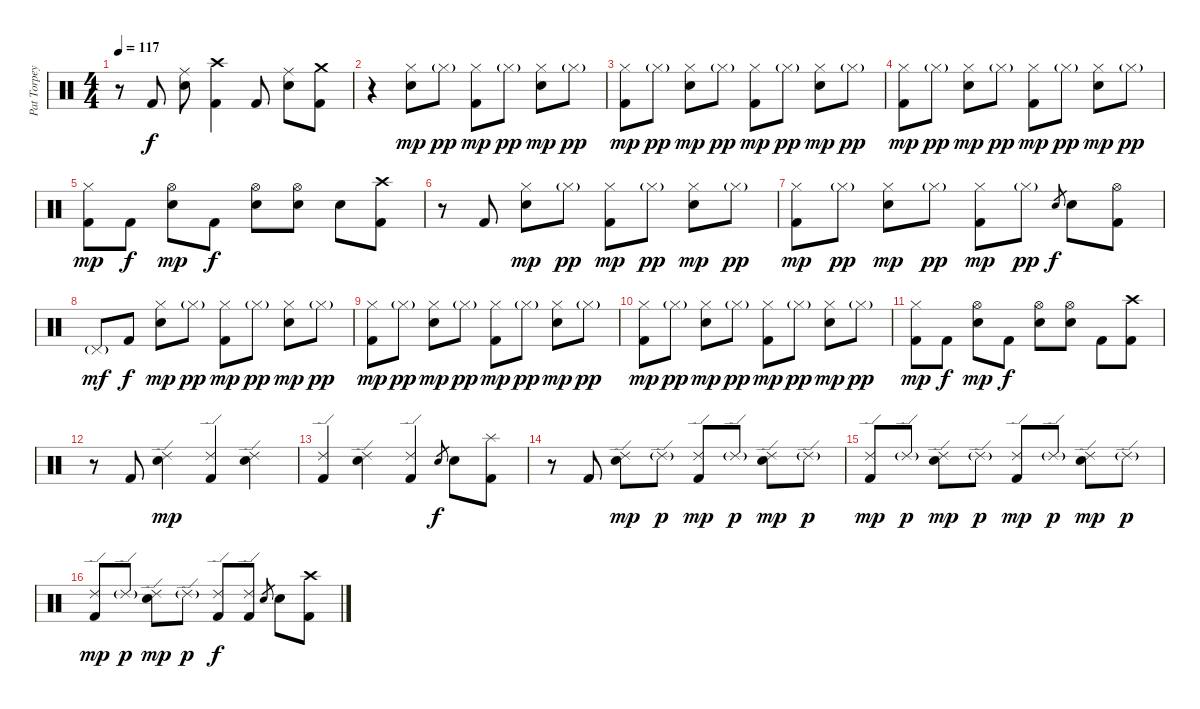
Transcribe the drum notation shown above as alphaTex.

\track ("Pat Torpey" "Pat Torpey") {instrument percussion}
\staff {score}
\articulation defaults
\ts (4 4)
\tempo 117
\clef neutral
\ks c
r.8{dy f} "Kick (hit) 2".8 ("Ride (middle)" "Electric Snare (hit)").8 ("Crash high (hit)" "Kick (hit) 2").4 "Kick (hit) 2".8 ("Ride (middle)" "Electric Snare (hit)").8 ("Crash medium (hit)" "Kick (hit) 2").8 |
r.4 ("Hi-Hat (closed)" "Electric Snare (hit)").8{dy mp} "Hi-Hat (closed)"{g}.8{dy pp} ("Hi-Hat (closed)" "Kick (hit) 2").8{dy mp} "Hi-Hat (closed)"{g}.8{dy pp} ("Hi-Hat (closed)" "Electric Snare (hit)").8{dy mp} "Hi-Hat (closed)"{g}.8{dy pp} |
("Hi-Hat (closed)" "Kick (hit) 2").8{dy mp} "Hi-Hat (closed)"{g}.8{dy pp} ("Hi-Hat (closed)" "Electric Snare (hit)").8{dy mp} "Hi-Hat (closed)"{g}.8{dy pp} ("Hi-Hat (closed)" "Kick (hit) 2").8{dy mp} "Hi-Hat (closed)"{g}.8{dy pp} ("Hi-Hat (closed)" "Electric Snare (hit)").8{dy mp} "Hi-Hat (closed)"{g}.8{dy pp} |
("Hi-Hat (closed)" "Kick (hit) 2").8{dy mp} "Hi-Hat (closed)"{g}.8{dy pp} ("Hi-Hat (closed)" "Electric Snare (hit)").8{dy mp} "Hi-Hat (closed)"{g}.8{dy pp} ("Hi-Hat (closed)" "Kick (hit) 2").8{dy mp} "Hi-Hat (closed)"{g}.8{dy pp} ("Hi-Hat (closed)" "Electric Snare (hit)").8{dy mp} "Hi-Hat (closed)"{g}.8{dy pp} |
("Hi-Hat (closed)" "Kick (hit) 2").8{dy mp} "Kick (hit) 2".8{dy f} ("Hi-Hat (open)" "Electric Snare (hit)").8{dy mp} "Kick (hit) 2".8{dy f} ("Hi-Hat (open)" "Electric Snare (hit)").8 ("Hi-Hat (open)" "Electric Snare (hit)").8 "Electric Snare (hit)".8 ("Crash high (hit)" "Kick (hit) 2").8 |
r.8 "Kick (hit) 2".8 ("Hi-Hat (closed)" "Electric Snare (hit)").8{dy mp} "Hi-Hat (closed)"{g}.8{dy pp} ("Hi-Hat (closed)" "Kick (hit) 2").8{dy mp} "Hi-Hat (closed)"{g}.8{dy pp} ("Hi-Hat (closed)" "Electric Snare (hit)").8{dy mp} "Hi-Hat (closed)"{g}.8{dy pp} |
("Hi-Hat (closed)" "Kick (hit) 2").8{dy mp} "Hi-Hat (closed)"{g}.8{dy pp} ("Hi-Hat (closed)" "Electric Snare (hit)").8{dy mp} "Hi-Hat (closed)"{g}.8{dy pp} ("Hi-Hat (closed)" "Kick (hit) 2").8{dy mp} "Hi-Hat (closed)"{g}.8{dy pp} "Electric Snare (hit)"{h}.8{gr dy f} "Electric Snare (hit)".8 ("Hi-Hat (open)" "Kick (hit) 2").8 |
"Pedal Hi-Hat (hit)"{g}.8{dy mf} "Kick (hit) 2".8{dy f} ("Hi-Hat (closed)" "Electric Snare (hit)").8{dy mp} "Hi-Hat (closed)"{g}.8{dy pp} ("Hi-Hat (closed)" "Kick (hit) 2").8{dy mp} "Hi-Hat (closed)"{g}.8{dy pp} ("Hi-Hat (closed)" "Electric Snare (hit)").8{dy mp} "Hi-Hat (closed)"{g}.8{dy pp} |
("Hi-Hat (closed)" "Kick (hit) 2").8{dy mp} "Hi-Hat (closed)"{g}.8{dy pp} ("Hi-Hat (closed)" "Electric Snare (hit)").8{dy mp} "Hi-Hat (closed)"{g}.8{dy pp} ("Hi-Hat (closed)" "Kick (hit) 2").8{dy mp} "Hi-Hat (closed)"{g}.8{dy pp} ("Hi-Hat (closed)" "Electric Snare (hit)").8{dy mp} "Hi-Hat (closed)"{g}.8{dy pp} |
("Hi-Hat (closed)" "Kick (hit) 2").8{dy mp} "Hi-Hat (closed)"{g}.8{dy pp} ("Hi-Hat (closed)" "Electric Snare (hit)").8{dy mp} "Hi-Hat (closed)"{g}.8{dy pp} ("Hi-Hat (closed)" "Kick (hit) 2").8{dy mp} "Hi-Hat (closed)"{g}.8{dy pp} ("Hi-Hat (closed)" "Electric Snare (hit)").8{dy mp} "Hi-Hat (closed)"{g}.8{dy pp} |
("Hi-Hat (closed)" "Kick (hit) 2").8{dy mp} "Kick (hit) 2".8{dy f} ("Hi-Hat (open)" "Electric Snare (hit)").8{dy mp} "Kick (hit) 2".8{dy f} ("Hi-Hat (open)" "Electric Snare (hit)").8 ("Hi-Hat (open)" "Electric Snare (hit)").8 "Kick (hit) 2".8 ("Crash high (hit)" "Kick (hit) 2").8 |
r.8 "Kick (hit) 2".8 ("Ride (edge) 2" "Electric Snare (hit)").4{dy mp} ("Ride (edge) 2" "Kick (hit) 2").4 ("Ride (edge) 2" "Electric Snare (hit)").4 |
("Ride (edge) 2" "Kick (hit) 2").4 ("Ride (edge) 2" "Electric Snare (hit)").4 ("Ride (edge) 2" "Kick (hit) 2").4 "Electric Snare (hit)"{h}.8{gr dy f} "Electric Snare (hit)".8 ("Splash (hit)" "Kick (hit) 2").8 |
r.8 "Kick (hit) 2".8 ("Ride (edge) 2" "Electric Snare (hit)").8{dy mp} "Ride (edge) 2"{g}.8{dy p} ("Ride (edge) 2" "Kick (hit) 2").8{dy mp} "Ride (edge) 2"{g}.8{dy p} ("Ride (edge) 2" "Electric Snare (hit)").8{dy mp} "Ride (edge) 2"{g}.8{dy p} |
("Ride (edge) 2" "Kick (hit) 2").8{dy mp} "Ride (edge) 2"{g}.8{dy p} ("Ride (edge) 2" "Electric Snare (hit)").8{dy mp} "Ride (edge) 2"{g}.8{dy p} ("Ride (edge) 2" "Kick (hit) 2").8{dy mp} "Ride (edge) 2"{g}.8{dy p} ("Ride (edge) 2" "Electric Snare (hit)").8{dy mp} "Ride (edge) 2"{g}.8{dy p} |
("Ride (edge) 2" "Kick (hit) 2").8{dy mp} "Ride (edge) 2"{g}.8{dy p} ("Ride (edge) 2" "Electric Snare (hit)").8{dy mp} "Ride (edge) 2"{g}.8{dy p} ("Ride (edge) 2" "Kick (hit) 2").8{dy f} ("Ride (edge) 2" "Kick (hit) 2").8 "Electric Snare (hit)"{h}.8{gr} "Electric Snare (hit)".8 ("Crash high (hit)" "Kick (hit) 2").8
